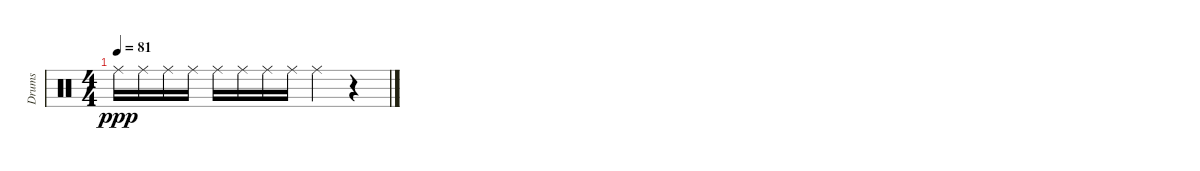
\track ("Drums" "Drums") {instrument percussion}
\staff {score}
\articulation defaults
\ts (4 4)
\tempo 81
\clef neutral
\ks c "Ride (middle)".16{dy ppp} "Ride (middle)".16 "Ride (middle)".16 "Ride (middle)".16 "Ride (middle)".16 "Ride (middle)".16 "Ride (middle)".16 "Ride (middle)".16 "Ride (middle)".4
r.4
